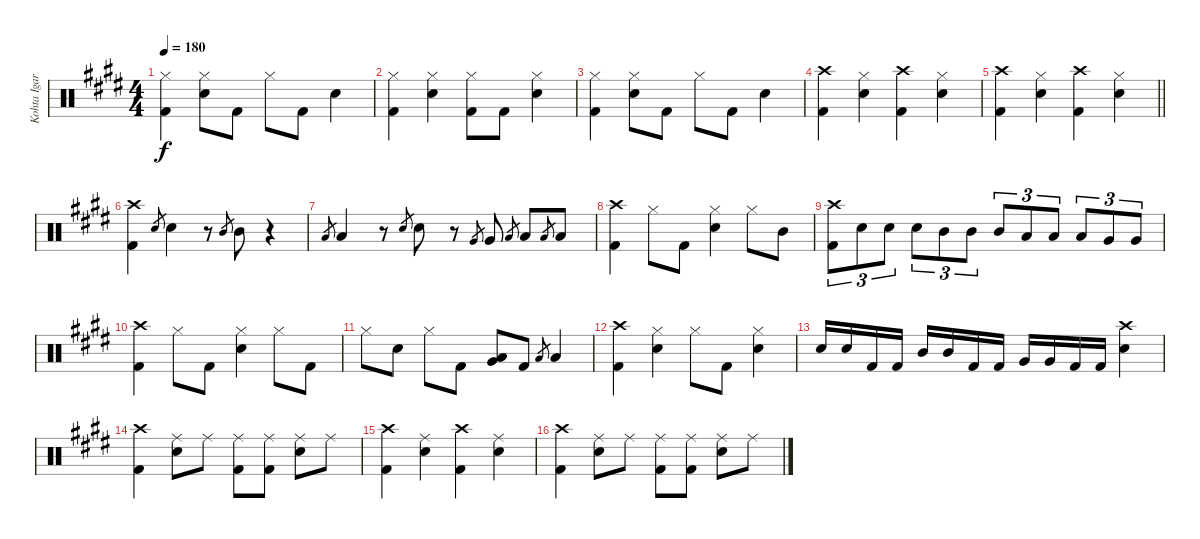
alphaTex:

\track ("Kohta Igarashi" "Kohta Igar") {instrument percussion}
\staff {score}
\articulation defaults
\ts (4 4)
\tempo 180
\clef neutral
\ks e
("Hi-Hat (closed)" "Kick (hit) 2").4{dy f} ("Hi-Hat (closed)" "Electric Snare (hit)").8 "Kick (hit) 2".8 "Hi-Hat (closed)".8 "Kick (hit) 2".8 "Electric Snare (hit)".4 |
("Hi-Hat (closed)" "Kick (hit) 2").4 ("Hi-Hat (closed)" "Electric Snare (hit)").4 ("Hi-Hat (closed)" "Kick (hit) 2").8 "Kick (hit) 2".8 ("Hi-Hat (closed)" "Electric Snare (hit)").4 |
("Hi-Hat (closed)" "Kick (hit) 2").4 ("Hi-Hat (closed)" "Electric Snare (hit)").8 "Kick (hit) 2".8 "Hi-Hat (closed)".8 "Kick (hit) 2".8 "Electric Snare (hit)".4 |
("Crash high (hit)" "Kick (hit) 2").4 ("Hi-Hat (closed)" "Electric Snare (hit)").4 ("Crash high (hit)" "Kick (hit) 2").4 ("Hi-Hat (closed)" "Electric Snare (hit)").4 |
\barLineRight lightlight
("Crash high (hit)" "Kick (hit) 2").4 ("Hi-Hat (closed)" "Electric Snare (hit)").4 ("Crash high (hit)" "Kick (hit) 2").4 ("Hi-Hat (closed)" "Electric Snare (hit)").4 |
("Crash high (hit)" "Kick (hit) 2").4 "Electric Snare (hit)".8{gr} "Electric Snare (hit)".4 r.8 "Mid Tom (hit)".8{gr} "Mid Tom (hit)".8 r.4 |
"Low Tom (hit)".8{gr} "Low Tom (hit)".4 r.8 "Electric Snare (hit)".8{gr} "Electric Snare (hit)".8 r.8 "Very Low Tom (hit)".8{gr} "Very Low Tom (hit)".8 "Low Floor Tom (hit)".8{gr} "Low Floor Tom (hit)".8 "Low Floor Tom (hit)".8{gr} "Low Floor Tom (hit)".8 |
("Crash high (hit)" "Kick (hit) 2").4 "Hi-Hat (closed)".8 "Kick (hit) 2".8 ("Hi-Hat (closed)" "Electric Snare (hit)").4 "Hi-Hat (closed)".8 "Mid Tom (hit)".8 |
("Crash high (hit)" "Kick (hit) 2").8{tu (3 2)} "Electric Snare (hit)".8{tu (3 2)} "Electric Snare (hit)".8{tu (3 2)} "Electric Snare (hit)".8{tu (3 2)} "Mid Tom (hit)".8{tu (3 2)} "Mid Tom (hit)".8{tu (3 2)} "Mid Tom (hit)".8{tu (3 2)} "Low Tom (hit)".8{tu (3 2)} "Low Tom (hit)".8{tu (3 2)} "Low Tom (hit)".8{tu (3 2)} "Very Low Tom (hit)".8{tu (3 2)} "Very Low Tom (hit)".8{tu (3 2)} |
("Crash high (hit)" "Kick (hit) 2").4 "Hi-Hat (closed)".8 "Kick (hit) 2".8 ("Hi-Hat (closed)" "Electric Snare (hit)").4 "Hi-Hat (closed)".8 "Kick (hit) 2".8 |
"Hi-Hat (closed)".8 "Electric Snare (hit)".8 "Hi-Hat (closed)".8 "Kick (hit) 2".8 ("Very Low Tom (hit)" "Low Floor Tom (hit)").8 "Kick (hit) 2".8 "Low Floor Tom (hit)".8{gr} "Low Floor Tom (hit)".4 |
("Crash high (hit)" "Kick (hit) 2").4 ("Hi-Hat (closed)" "Electric Snare (hit)").4 "Hi-Hat (closed)".8 "Kick (hit) 2".8 ("Hi-Hat (closed)" "Electric Snare (hit)").4 |
"Electric Snare (hit)".16 "Electric Snare (hit)".16 "Kick (hit) 2".16 "Kick (hit) 2".16 "Mid Tom (hit)".16 "Mid Tom (hit)".16 "Kick (hit) 2".16 "Kick (hit) 2".16 "Very Low Tom (hit)".16 "Very Low Tom (hit)".16 "Kick (hit) 2".16 "Kick (hit) 2".16 ("Crash high (hit)" "Electric Snare (hit)").4 |
("Crash high (hit)" "Kick (hit) 2").4 ("Ride (middle)" "Electric Snare (hit)").8 "Ride (middle)".8 ("Ride (middle)" "Kick (hit) 2").8 ("Ride (middle)" "Kick (hit) 2").8 ("Ride (middle)" "Electric Snare (hit)").8 "Ride (middle)".8 |
("Crash high (hit)" "Kick (hit) 2").4 ("Ride (middle)" "Electric Snare (hit)").4 ("Crash high (hit)" "Kick (hit) 2").4 ("Ride (middle)" "Electric Snare (hit)").4 |
("Crash high (hit)" "Kick (hit) 2").4 ("Ride (middle)" "Electric Snare (hit)").8 "Ride (middle)".8 ("Ride (middle)" "Kick (hit) 2").8 ("Ride (middle)" "Kick (hit) 2").8 ("Ride (middle)" "Electric Snare (hit)").8 "Ride (middle)".8
